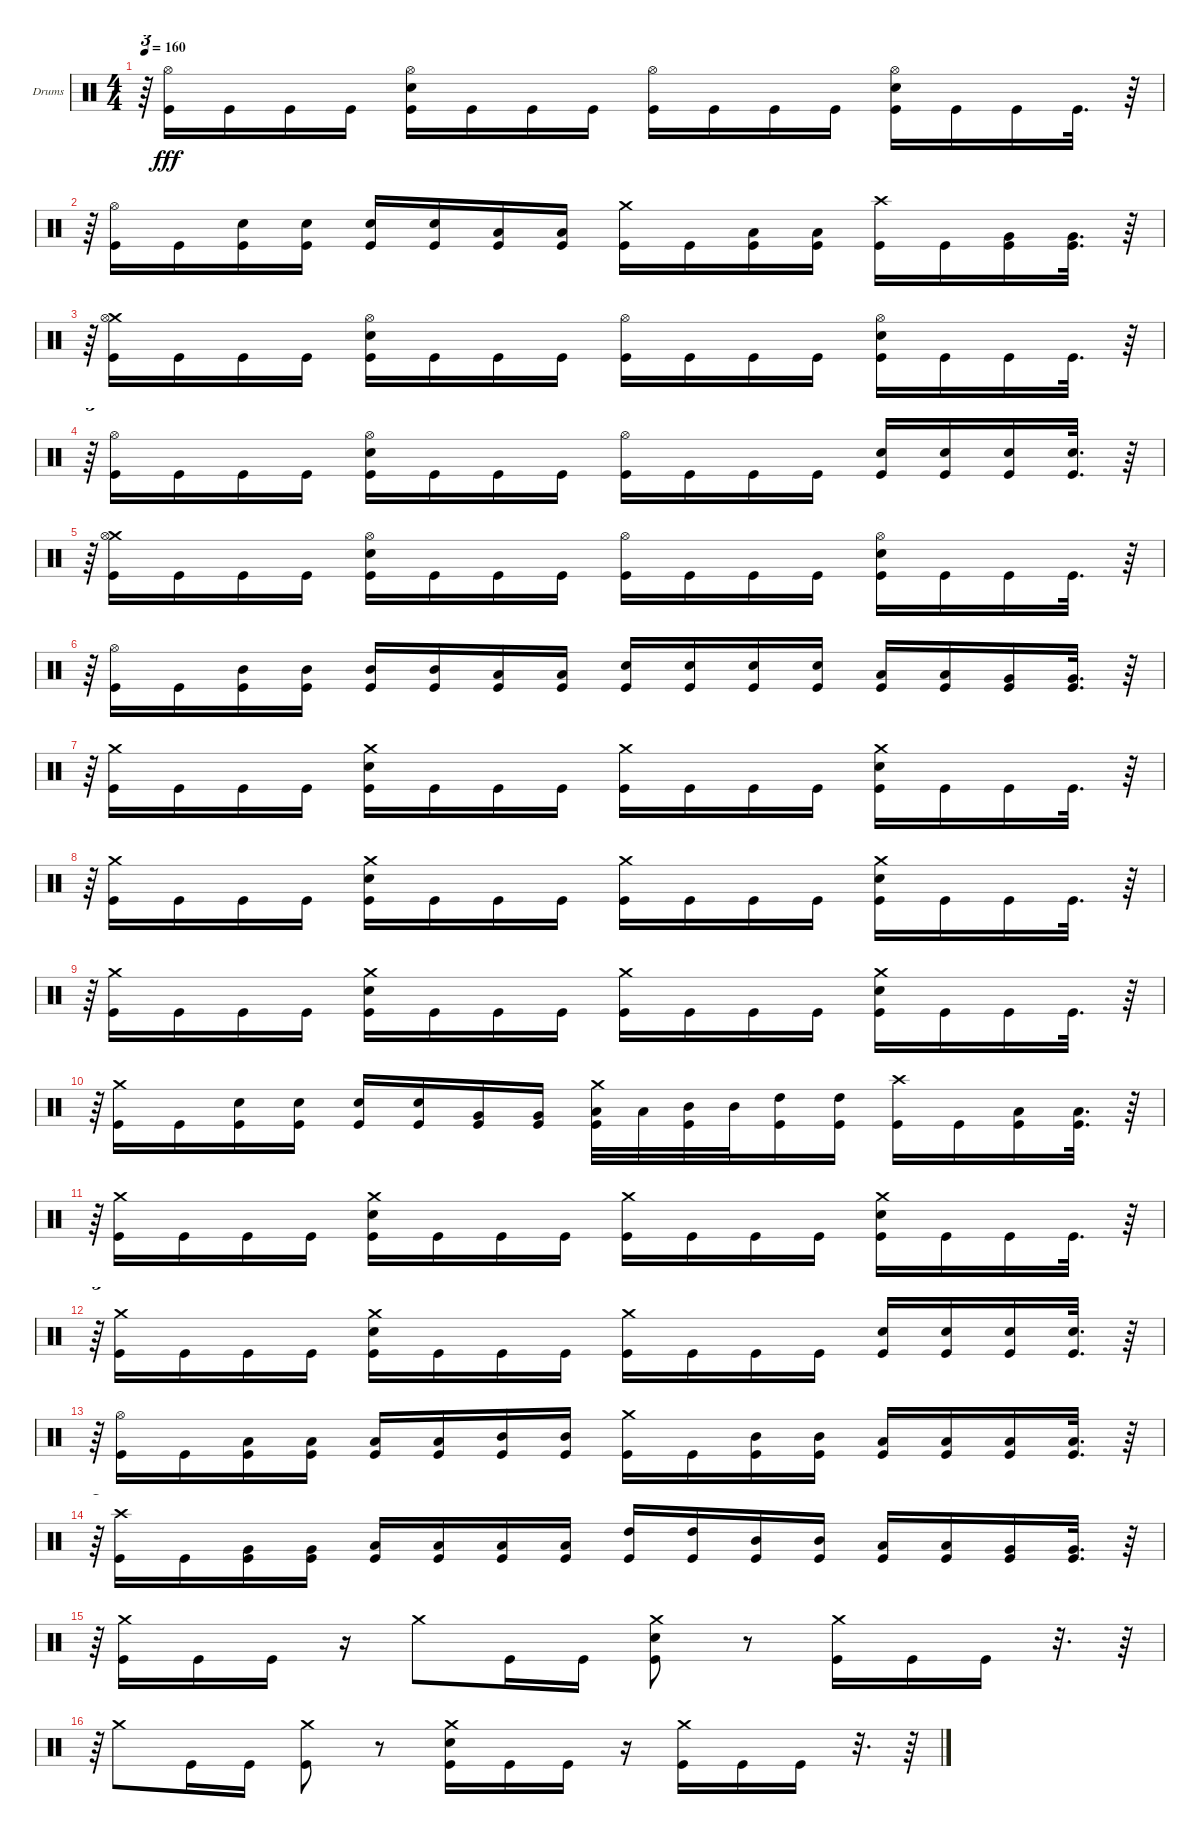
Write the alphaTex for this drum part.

\bracketExtendMode groupsimilarinstruments
\firstSystemTrackNameOrientation horizontal
\otherSystemsTrackNameOrientation horizontal
\track ("Drums" "Drums") {instrument percussion}
\staff {score}
\articulation defaults
\ts (4 4)
\tempo 160
\clef neutral
\ks c
r.64{tu (3 2) dy fff} ("Hi-Hat (open)" "Kick (hit)").16 "Kick (hit)".16 "Kick (hit)".16 "Kick (hit)".16 ("Hi-Hat (open)" "Snare (hit) 2" "Kick (hit)").16 "Kick (hit)".16 "Kick (hit)".16 "Kick (hit)".16 ("Hi-Hat (open)" "Kick (hit)").16 "Kick (hit)".16 "Kick (hit)".16 "Kick (hit)".16 ("Hi-Hat (open)" "Snare (hit) 2" "Kick (hit)").16 "Kick (hit)".16 "Kick (hit)".16 "Kick (hit)".32{d} r.64 |
r.64{tu (3 2)} ("Hi-Hat (open)" "Kick (hit)").16 "Kick (hit)".16 ("Snare (hit) 2" "Kick (hit)").16 ("Snare (hit) 2" "Kick (hit)").16 ("Snare (hit) 2" "Kick (hit)").16 ("Snare (hit) 2" "Kick (hit)").16 ("Low Tom (hit)" "Kick (hit)").16 ("Low Tom (hit)" "Kick (hit)").16 ("Crash medium (hit)" "Kick (hit)").16 "Kick (hit)".16 ("Low Tom (hit)" "Kick (hit)").16 ("Low Tom (hit)" "Kick (hit)").16 ("Crash high (hit)" "Kick (hit)").16 "Kick (hit)".16 ("Very Low Tom (hit)" "Kick (hit)").16 ("Very Low Tom (hit)" "Kick (hit)").32{d} r.64 |
r.64{tu (3 2)} ("Kick (hit)" "Crash medium (hit)" "Hi-Hat (open)").16 "Kick (hit)".16 "Kick (hit)".16 "Kick (hit)".16 ("Kick (hit)" "Snare (hit) 2" "Hi-Hat (open)").16 "Kick (hit)".16 "Kick (hit)".16 "Kick (hit)".16 ("Kick (hit)" "Hi-Hat (open)").16 "Kick (hit)".16 "Kick (hit)".16 "Kick (hit)".16 ("Kick (hit)" "Snare (hit) 2" "Hi-Hat (open)").16 "Kick (hit)".16 "Kick (hit)".16 "Kick (hit)".32{d} r.64 |
r.64{tu (3 2)} ("Kick (hit)" "Hi-Hat (open)").16 "Kick (hit)".16 "Kick (hit)".16 "Kick (hit)".16 ("Kick (hit)" "Hi-Hat (open)" "Snare (hit) 2").16 "Kick (hit)".16 "Kick (hit)".16 "Kick (hit)".16 ("Kick (hit)" "Hi-Hat (open)").16 "Kick (hit)".16 "Kick (hit)".16 "Kick (hit)".16 ("Kick (hit)" "Snare (hit) 2").16 ("Kick (hit)" "Snare (hit) 2").16 ("Kick (hit)" "Snare (hit) 2").16 ("Kick (hit)" "Snare (hit) 2").32{d} r.64 |
r.64{tu (3 2)} ("Kick (hit)" "Crash medium (hit)" "Hi-Hat (open)").16 "Kick (hit)".16 "Kick (hit)".16 "Kick (hit)".16 ("Kick (hit)" "Snare (hit) 2" "Hi-Hat (open)").16 "Kick (hit)".16 "Kick (hit)".16 "Kick (hit)".16 ("Kick (hit)" "Hi-Hat (open)").16 "Kick (hit)".16 "Kick (hit)".16 "Kick (hit)".16 ("Kick (hit)" "Snare (hit) 2" "Hi-Hat (open)").16 "Kick (hit)".16 "Kick (hit)".16 "Kick (hit)".32{d} r.64 |
r.64{tu (3 2)} ("Kick (hit)" "Hi-Hat (open)").16 "Kick (hit)".16 ("Kick (hit)" "Mid Tom (hit)").16 ("Kick (hit)" "Mid Tom (hit)").16 ("Kick (hit)" "Mid Tom (hit)").16 ("Kick (hit)" "Mid Tom (hit)").16 ("Kick (hit)" "Low Tom (hit)").16 ("Kick (hit)" "Low Tom (hit)").16 ("Kick (hit)" "Snare (hit) 2").16 ("Kick (hit)" "Snare (hit) 2").16 ("Kick (hit)" "Snare (hit) 2").16 ("Kick (hit)" "Snare (hit) 2").16 ("Kick (hit)" "Low Tom (hit)").16 ("Kick (hit)" "Low Tom (hit)").16 ("Kick (hit)" "Very Low Tom (hit)").16 ("Kick (hit)" "Very Low Tom (hit)").32{d} r.64 |
r.64{tu (3 2)} ("Kick (hit)" "Crash medium (hit)").16 "Kick (hit)".16 "Kick (hit)".16 "Kick (hit)".16 ("Kick (hit)" "Snare (hit) 2" "Crash medium (hit)").16 "Kick (hit)".16 "Kick (hit)".16 "Kick (hit)".16 ("Kick (hit)" "Crash medium (hit)").16 "Kick (hit)".16 "Kick (hit)".16 "Kick (hit)".16 ("Kick (hit)" "Snare (hit) 2" "Crash medium (hit)").16 "Kick (hit)".16 "Kick (hit)".16 "Kick (hit)".32{d} r.64 |
r.64{tu (3 2)} ("Kick (hit)" "Crash medium (hit)").16 "Kick (hit)".16 "Kick (hit)".16 "Kick (hit)".16 ("Snare (hit) 2" "Kick (hit)" "Crash medium (hit)").16 "Kick (hit)".16 "Kick (hit)".16 "Kick (hit)".16 ("Kick (hit)" "Crash medium (hit)").16 "Kick (hit)".16 "Kick (hit)".16 "Kick (hit)".16 ("Crash medium (hit)" "Snare (hit) 2" "Kick (hit)").16 "Kick (hit)".16 "Kick (hit)".16 "Kick (hit)".32{d} r.64 |
r.64{tu (3 2)} ("Crash medium (hit)" "Kick (hit)").16 "Kick (hit)".16 "Kick (hit)".16 "Kick (hit)".16 ("Crash medium (hit)" "Snare (hit) 2" "Kick (hit)").16 "Kick (hit)".16 "Kick (hit)".16 "Kick (hit)".16 ("Crash medium (hit)" "Kick (hit)").16 "Kick (hit)".16 "Kick (hit)".16 "Kick (hit)".16 ("Crash medium (hit)" "Snare (hit) 2" "Kick (hit)").16 "Kick (hit)".16 "Kick (hit)".16 "Kick (hit)".32{d} r.64 |
r.64{tu (3 2)} ("Crash medium (hit)" "Kick (hit)").16 "Kick (hit)".16 ("Snare (hit) 2" "Kick (hit)").16 ("Snare (hit) 2" "Kick (hit)").16 ("Snare (hit) 2" "Kick (hit)").16 ("Snare (hit) 2" "Kick (hit)").16 ("Kick (hit)" "Very Low Tom (hit)").16 ("Kick (hit)" "Very Low Tom (hit)").16 ("Low Tom (hit)" "Kick (hit)" "Crash medium (hit)").32 "Low Tom (hit)".32 ("Mid Tom (hit)" "Kick (hit)").32 "Mid Tom (hit)".32 ("High Tom (hit)" "Kick (hit)").16 ("High Tom (hit)" "Kick (hit)").16 ("Kick (hit)" "Crash high (hit)").16 "Kick (hit)".16 ("Low Tom (hit)" "Kick (hit)").16 ("Low Tom (hit)" "Kick (hit)").32{d} r.64 |
r.64{tu (3 2)} ("Crash medium (hit)" "Kick (hit)").16 "Kick (hit)".16 "Kick (hit)".16 "Kick (hit)".16 ("Crash medium (hit)" "Snare (hit) 2" "Kick (hit)").16 "Kick (hit)".16 "Kick (hit)".16 "Kick (hit)".16 ("Crash medium (hit)" "Kick (hit)").16 "Kick (hit)".16 "Kick (hit)".16 "Kick (hit)".16 ("Crash medium (hit)" "Kick (hit)" "Snare (hit) 2").16 "Kick (hit)".16 "Kick (hit)".16 "Kick (hit)".32{d} r.64 |
r.64{tu (3 2)} ("Crash medium (hit)" "Kick (hit)").16 "Kick (hit)".16 "Kick (hit)".16 "Kick (hit)".16 ("Crash medium (hit)" "Kick (hit)" "Snare (hit) 2").16 "Kick (hit)".16 "Kick (hit)".16 "Kick (hit)".16 ("Crash medium (hit)" "Kick (hit)").16 "Kick (hit)".16 "Kick (hit)".16 "Kick (hit)".16 ("Snare (hit) 2" "Kick (hit)").16 ("Snare (hit) 2" "Kick (hit)").16 ("Snare (hit) 2" "Kick (hit)").16 ("Snare (hit) 2" "Kick (hit)").32{d} r.64 |
r.64{tu (3 2)} ("Hi-Hat (open)" "Kick (hit)").16 "Kick (hit)".16 ("Kick (hit)" "Low Tom (hit)").16 ("Kick (hit)" "Low Tom (hit)").16 ("Kick (hit)" "Low Tom (hit)").16 ("Kick (hit)" "Low Tom (hit)").16 ("Kick (hit)" "Mid Tom (hit)").16 ("Kick (hit)" "Mid Tom (hit)").16 ("Kick (hit)" "Crash medium (hit)").16 "Kick (hit)".16 ("Kick (hit)" "Mid Tom (hit)").16 ("Mid Tom (hit)" "Kick (hit)").16 ("Kick (hit)" "Low Tom (hit)").16 ("Kick (hit)" "Low Tom (hit)").16 ("Low Tom (hit)" "Kick (hit)").16 ("Low Tom (hit)" "Kick (hit)").32{d} r.64 |
r.64{tu (3 2)} ("Kick (hit)" "Crash high (hit)").16 "Kick (hit)".16 ("Very Low Tom (hit)" "Kick (hit)").16 ("Very Low Tom (hit)" "Kick (hit)").16 ("Low Tom (hit)" "Kick (hit)").16 ("Low Tom (hit)" "Kick (hit)").16 ("Low Tom (hit)" "Kick (hit)").16 ("Low Tom (hit)" "Kick (hit)").16 ("High Tom (hit)" "Kick (hit)").16 ("High Tom (hit)" "Kick (hit)").16 ("Mid Tom (hit)" "Kick (hit)").16 ("Mid Tom (hit)" "Kick (hit)").16 ("Low Tom (hit)" "Kick (hit)").16 ("Low Tom (hit)" "Kick (hit)").16 ("Very Low Tom (hit)" "Kick (hit)").16 ("Very Low Tom (hit)" "Kick (hit)").32{d} r.64 |
r.64{tu (3 2)} ("Crash medium (hit)" "Kick (hit)").16 "Kick (hit)".16 "Kick (hit)".16 r.16 "Crash medium (hit)".8 "Kick (hit)".16 "Kick (hit)".16 ("Crash medium (hit)" "Kick (hit)" "Snare (hit) 2").8 r.8 ("Crash medium (hit)" "Kick (hit)").16 "Kick (hit)".16 "Kick (hit)".16 r.32{d} r.64 |
r.64{tu (3 2)} "Crash medium (hit)".8 "Kick (hit)".16 "Kick (hit)".16 ("Crash medium (hit)" "Kick (hit)").8 r.8 ("Crash medium (hit)" "Kick (hit)" "Snare (hit) 2").16 "Kick (hit)".16 "Kick (hit)".16 r.16 ("Crash medium (hit)" "Kick (hit)").16 "Kick (hit)".16 "Kick (hit)".16 r.32{d} r.64
